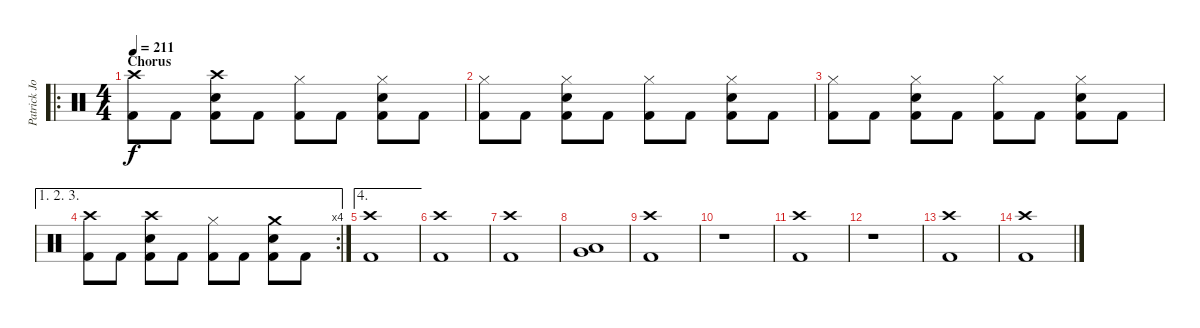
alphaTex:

\track ("Patrick Johansson" "Patrick Jo") {instrument percussion}
\staff {score}
\articulation defaults
\ro
\ts (4 4)
\section ("" "Chorus")
\tempo 211
\clef neutral
\ks c
("Crash high (hit)" "Kick (hit) 2").8{dy f} "Kick (hit) 2".8 ("Crash high (hit)" "Electric Snare (hit)" "Kick (hit) 2").8 "Kick (hit) 2".8 ("Hi-Hat (closed)" "Kick (hit) 2").8 "Kick (hit) 2".8 ("Electric Snare (hit)" "Hi-Hat (closed)" "Kick (hit) 2").8 "Kick (hit) 2".8 |
("Hi-Hat (closed)" "Kick (hit) 2").8 "Kick (hit) 2".8 ("Electric Snare (hit)" "Hi-Hat (closed)" "Kick (hit) 2").8 "Kick (hit) 2".8 ("Hi-Hat (closed)" "Kick (hit) 2").8 "Kick (hit) 2".8 ("Electric Snare (hit)" "Hi-Hat (closed)" "Kick (hit) 2").8 "Kick (hit) 2".8 |
("Hi-Hat (closed)" "Kick (hit) 2").8 "Kick (hit) 2".8 ("Electric Snare (hit)" "Hi-Hat (closed)" "Kick (hit) 2").8 "Kick (hit) 2".8 ("Hi-Hat (closed)" "Kick (hit) 2").8 "Kick (hit) 2".8 ("Electric Snare (hit)" "Hi-Hat (closed)" "Kick (hit) 2").8 "Kick (hit) 2".8 |
\ae (1 2 3)
\rc 4
("Crash high (hit)" "Kick (hit) 2").8 "Kick (hit) 2".8 ("Crash high (hit)" "Electric Snare (hit)" "Kick (hit) 2").8 "Kick (hit) 2".8 ("Hi-Hat (closed)" "Kick (hit) 2").8 "Kick (hit) 2".8 ("Crash medium (hit)" "Electric Snare (hit)" "Kick (hit) 2").8 "Kick (hit) 2".8 |
\ae 4
("Crash high (hit)" "Kick (hit) 2").1 |
("Crash high (hit)" "Kick (hit) 2").1 |
("Crash high (hit)" "Kick (hit) 2").1 |
("Very Low Tom (hit)" "Low Floor Tom (hit)").1 |
("Crash high (hit)" "Kick (hit) 2").1 |
r.1 |
("Crash high (hit)" "Kick (hit) 2").1 |
r.1 |
("Crash high (hit)" "Kick (hit) 2").1 |
("Crash high (hit)" "Kick (hit) 2").1
